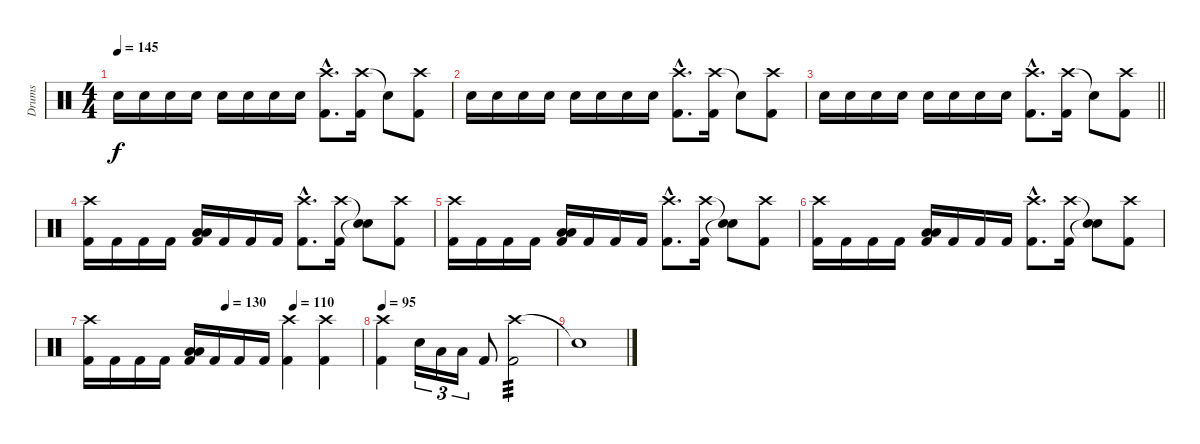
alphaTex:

\track ("Drums" "Drums") {instrument percussion}
\staff {score}
\articulation defaults
\ts (4 4)
\tempo 145
\clef neutral
\ks c "Snare (hit) 2".16{dy f} "Snare (hit) 2".16 "Snare (hit) 2".16 "Snare (hit) 2".16 "Snare (hit) 2".16 "Snare (hit) 2".16 "Snare (hit) 2".16 "Snare (hit) 2".16
("Crash high (hit)"{hac} "Kick (hit) 2"{hac}).8{d} ("Crash high (hit)" "Kick (hit) 2").16 "Snare (hit)"{t}.8 ("Crash high (hit)" "Kick (hit) 2").8 |
"Snare (hit) 2".16 "Snare (hit) 2".16 "Snare (hit) 2".16 "Snare (hit) 2".16 "Snare (hit) 2".16 "Snare (hit) 2".16 "Snare (hit) 2".16 "Snare (hit) 2".16 ("Crash high (hit)"{hac} "Kick (hit) 2"{hac}).8{d} ("Crash high (hit)" "Kick (hit) 2").16 "Snare (hit)"{t}.8 ("Crash high (hit)" "Kick (hit) 2").8 |
\barLineRight lightlight "Snare (hit) 2".16 "Snare (hit) 2".16 "Snare (hit) 2".16 "Snare (hit) 2".16 "Snare (hit) 2".16 "Snare (hit) 2".16 "Snare (hit) 2".16 "Snare (hit) 2".16
("Crash high (hit)"{hac} "Kick (hit) 2"{hac}).8{d} ("Crash high (hit)" "Kick (hit) 2").16 "Snare (hit)"{t}.8 ("Crash high (hit)" "Kick (hit) 2").8 |
("Crash high (hit)" "Kick (hit) 2").16 "Kick (hit) 2".16 "Kick (hit) 2".16 "Kick (hit) 2".16 ("Low Floor Tom (hit)" "Low Floor Tom (hit)" "Kick (hit) 2").16 "Kick (hit) 2".16 "Kick (hit) 2".16 "Kick (hit) 2".16 ("Crash high (hit)"{hac} "Kick (hit) 2"{hac}).8{d} ("Crash high (hit)" "Kick (hit) 2").16 ("Snare (hit)"{t} "Snare (hit)"{t}).8 ("Crash high (hit)" "Kick (hit) 2").8 |
("Crash high (hit)" "Kick (hit) 2").16 "Kick (hit) 2".16 "Kick (hit) 2".16 "Kick (hit) 2".16 ("Low Floor Tom (hit)" "Low Floor Tom (hit)" "Kick (hit) 2").16 "Kick (hit) 2".16 "Kick (hit) 2".16 "Kick (hit) 2".16 ("Crash high (hit)"{hac} "Kick (hit) 2"{hac}).8{d} ("Crash high (hit)" "Kick (hit) 2").16 ("Snare (hit)"{t} "Snare (hit)"{t}).8 ("Crash high (hit)" "Kick (hit) 2").8 |
("Crash high (hit)" "Kick (hit) 2").16 "Kick (hit) 2".16 "Kick (hit) 2".16 "Kick (hit) 2".16 ("Low Floor Tom (hit)" "Low Floor Tom (hit)" "Kick (hit) 2").16 "Kick (hit) 2".16 "Kick (hit) 2".16 "Kick (hit) 2".16 ("Crash high (hit)"{hac} "Kick (hit) 2"{hac}).8{d} ("Crash high (hit)" "Kick (hit) 2").16 ("Snare (hit)"{t} "Snare (hit)"{t}).8 ("Crash high (hit)" "Kick (hit) 2").8 |
\tempo (130 0.5)
\tempo (110 0.75)
("Crash high (hit)" "Kick (hit) 2").16 "Kick (hit) 2".16 "Kick (hit) 2".16 "Kick (hit) 2".16 ("Low Floor Tom (hit)" "Low Floor Tom (hit)" "Kick (hit) 2").16 "Kick (hit) 2".16 "Kick (hit) 2".16 "Kick (hit) 2".16 ("Crash high (hit)" "Kick (hit) 2").4 ("Crash high (hit)" "Kick (hit) 2").4 |
\tempo 95
("Crash high (hit)" "Kick (hit) 2").4 "Snare (hit) 2".16{tu (3 2)} "Low Tom (hit)".16{tu (3 2)} "Low Floor Tom (hit)".16{tu (3 2)} "Kick (hit) 2".8 ("Crash high (hit)" "Kick (hit) 2").2{tp 3} |
"Snare (hit)"{t}.1
